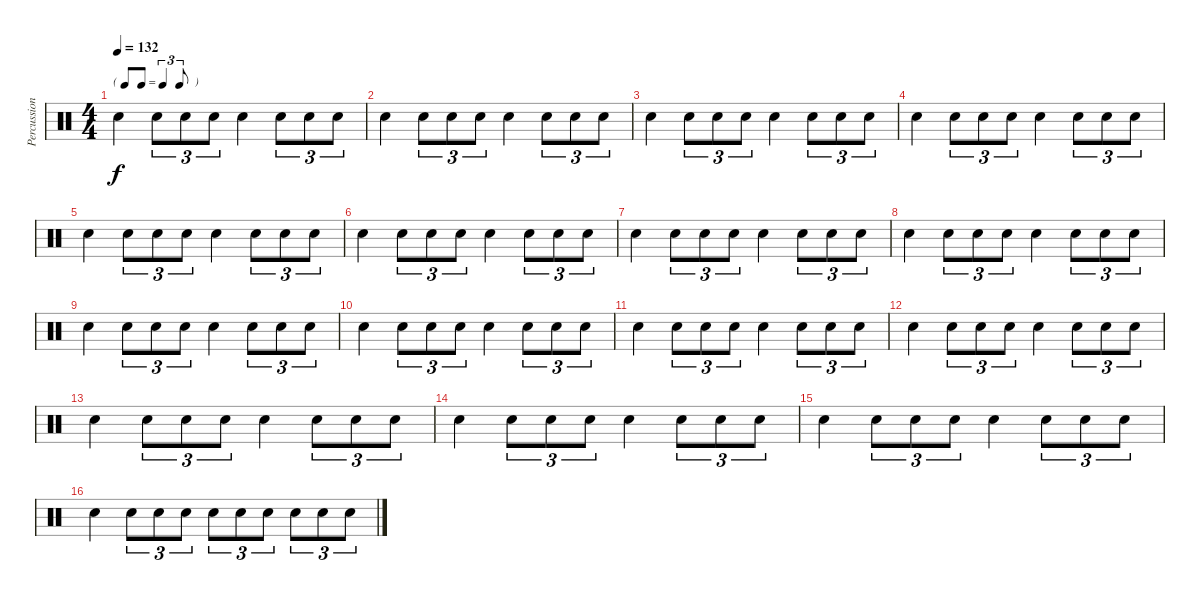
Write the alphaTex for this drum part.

\track ("Percussions" "Percussion") {instrument percussion}
\staff {score}
\articulation defaults
\ts (4 4)
\tf triplet8th
\tempo 132
\clef neutral
\ks c "Snare (hit) 2".4{dy f} "Snare (hit) 2".8{tu (3 2)} "Snare (hit) 2".8{tu (3 2)} "Snare (hit) 2".8{tu (3 2)} "Snare (hit) 2".4 "Snare (hit) 2".8{tu (3 2)} "Snare (hit) 2".8{tu (3 2)} "Snare (hit) 2".8{tu (3 2)}
|
"Snare (hit) 2".4 "Snare (hit) 2".8{tu (3 2)} "Snare (hit) 2".8{tu (3 2)} "Snare (hit) 2".8{tu (3 2)} "Snare (hit) 2".4 "Snare (hit) 2".8{tu (3 2)} "Snare (hit) 2".8{tu (3 2)} "Snare (hit) 2".8{tu (3 2)} |
"Snare (hit) 2".4 "Snare (hit) 2".8{tu (3 2)} "Snare (hit) 2".8{tu (3 2)} "Snare (hit) 2".8{tu (3 2)} "Snare (hit) 2".4 "Snare (hit) 2".8{tu (3 2)} "Snare (hit) 2".8{tu (3 2)} "Snare (hit) 2".8{tu (3 2)} |
"Snare (hit) 2".4 "Snare (hit) 2".8{tu (3 2)} "Snare (hit) 2".8{tu (3 2)} "Snare (hit) 2".8{tu (3 2)} "Snare (hit) 2".4 "Snare (hit) 2".8{tu (3 2)} "Snare (hit) 2".8{tu (3 2)} "Snare (hit) 2".8{tu (3 2)} |
"Snare (hit) 2".4 "Snare (hit) 2".8{tu (3 2)} "Snare (hit) 2".8{tu (3 2)} "Snare (hit) 2".8{tu (3 2)} "Snare (hit) 2".4 "Snare (hit) 2".8{tu (3 2)} "Snare (hit) 2".8{tu (3 2)} "Snare (hit) 2".8{tu (3 2)} |
"Snare (hit) 2".4 "Snare (hit) 2".8{tu (3 2)} "Snare (hit) 2".8{tu (3 2)} "Snare (hit) 2".8{tu (3 2)} "Snare (hit) 2".4 "Snare (hit) 2".8{tu (3 2)} "Snare (hit) 2".8{tu (3 2)} "Snare (hit) 2".8{tu (3 2)} |
"Snare (hit) 2".4 "Snare (hit) 2".8{tu (3 2)} "Snare (hit) 2".8{tu (3 2)} "Snare (hit) 2".8{tu (3 2)} "Snare (hit) 2".4 "Snare (hit) 2".8{tu (3 2)} "Snare (hit) 2".8{tu (3 2)} "Snare (hit) 2".8{tu (3 2)} |
"Snare (hit) 2".4 "Snare (hit) 2".8{tu (3 2)} "Snare (hit) 2".8{tu (3 2)} "Snare (hit) 2".8{tu (3 2)} "Snare (hit) 2".4 "Snare (hit) 2".8{tu (3 2)} "Snare (hit) 2".8{tu (3 2)} "Snare (hit) 2".8{tu (3 2)} |
"Snare (hit) 2".4 "Snare (hit) 2".8{tu (3 2)} "Snare (hit) 2".8{tu (3 2)} "Snare (hit) 2".8{tu (3 2)} "Snare (hit) 2".4 "Snare (hit) 2".8{tu (3 2)} "Snare (hit) 2".8{tu (3 2)} "Snare (hit) 2".8{tu (3 2)} |
"Snare (hit) 2".4 "Snare (hit) 2".8{tu (3 2)} "Snare (hit) 2".8{tu (3 2)} "Snare (hit) 2".8{tu (3 2)} "Snare (hit) 2".4 "Snare (hit) 2".8{tu (3 2)} "Snare (hit) 2".8{tu (3 2)} "Snare (hit) 2".8{tu (3 2)} |
"Snare (hit) 2".4 "Snare (hit) 2".8{tu (3 2)} "Snare (hit) 2".8{tu (3 2)} "Snare (hit) 2".8{tu (3 2)} "Snare (hit) 2".4 "Snare (hit) 2".8{tu (3 2)} "Snare (hit) 2".8{tu (3 2)} "Snare (hit) 2".8{tu (3 2)} |
"Snare (hit) 2".4 "Snare (hit) 2".8{tu (3 2)} "Snare (hit) 2".8{tu (3 2)} "Snare (hit) 2".8{tu (3 2)} "Snare (hit) 2".4 "Snare (hit) 2".8{tu (3 2)} "Snare (hit) 2".8{tu (3 2)} "Snare (hit) 2".8{tu (3 2)} |
"Snare (hit) 2".4 "Snare (hit) 2".8{tu (3 2)} "Snare (hit) 2".8{tu (3 2)} "Snare (hit) 2".8{tu (3 2)} "Snare (hit) 2".4 "Snare (hit) 2".8{tu (3 2)} "Snare (hit) 2".8{tu (3 2)} "Snare (hit) 2".8{tu (3 2)} |
"Snare (hit) 2".4 "Snare (hit) 2".8{tu (3 2)} "Snare (hit) 2".8{tu (3 2)} "Snare (hit) 2".8{tu (3 2)} "Snare (hit) 2".4 "Snare (hit) 2".8{tu (3 2)} "Snare (hit) 2".8{tu (3 2)} "Snare (hit) 2".8{tu (3 2)} |
"Snare (hit) 2".4 "Snare (hit) 2".8{tu (3 2)} "Snare (hit) 2".8{tu (3 2)} "Snare (hit) 2".8{tu (3 2)} "Snare (hit) 2".4 "Snare (hit) 2".8{tu (3 2)} "Snare (hit) 2".8{tu (3 2)} "Snare (hit) 2".8{tu (3 2)} |
"Snare (hit) 2".4 "Snare (hit) 2".8{tu (3 2)} "Snare (hit) 2".8{tu (3 2)} "Snare (hit) 2".8{tu (3 2)} "Snare (hit) 2".8{tu (3 2)} "Snare (hit) 2".8{tu (3 2)} "Snare (hit) 2".8{tu (3 2)} "Snare (hit) 2".8{tu (3 2)} "Snare (hit) 2".8{tu (3 2)} "Snare (hit) 2".8{tu (3 2)}
